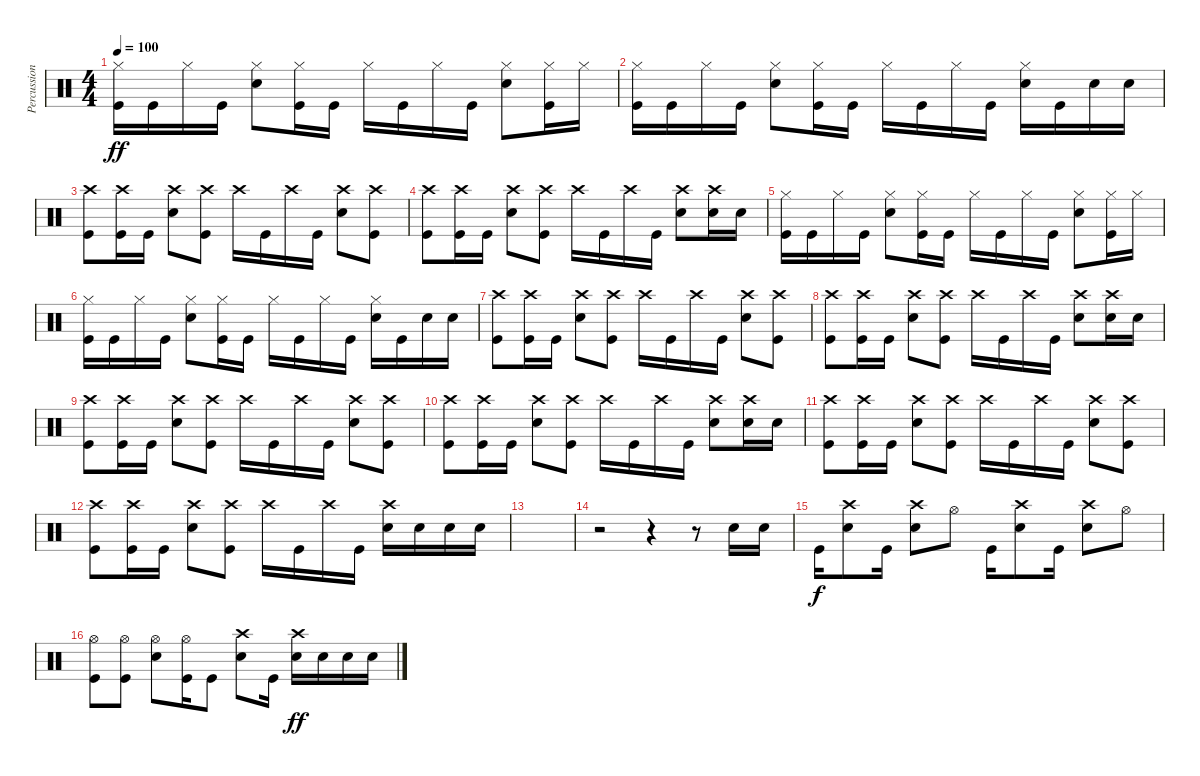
\track ("Percussion" "Percussion") {instrument percussion}
\staff {score}
\articulation defaults
\ts (4 4)
\tempo 100
\clef neutral
\ks c
("Hi-Hat (closed)" "Kick (hit)").16{dy ff} "Kick (hit)".16 "Hi-Hat (closed)".16 "Kick (hit)".16 ("Hi-Hat (closed)" "Electric Snare (hit)").8 ("Hi-Hat (closed)" "Kick (hit)").16 "Kick (hit)".16 "Hi-Hat (closed)".16 "Kick (hit)".16 "Hi-Hat (closed)".16 "Kick (hit)".16 ("Hi-Hat (closed)" "Electric Snare (hit)").8 ("Hi-Hat (closed)" "Kick (hit)").16 "Hi-Hat (closed)".16 |
("Hi-Hat (closed)" "Kick (hit)").16 "Kick (hit)".16 "Hi-Hat (closed)".16 "Kick (hit)".16 ("Hi-Hat (closed)" "Electric Snare (hit)").8 ("Hi-Hat (closed)" "Kick (hit)").16 "Kick (hit)".16 "Hi-Hat (closed)".16 "Kick (hit)".16 "Hi-Hat (closed)".16 "Kick (hit)".16 ("Hi-Hat (closed)" "Electric Snare (hit)").16 "Kick (hit)".16 "Electric Snare (hit)".16 "Electric Snare (hit)".16 |
("Crash high (hit)" "Kick (hit)").8 ("Crash high (hit)" "Kick (hit)").16 "Kick (hit)".16 ("Crash high (hit)" "Electric Snare (hit)").8 ("Crash high (hit)" "Kick (hit)").8 "Crash high (hit)".16 "Kick (hit)".16 "Crash high (hit)".16 "Kick (hit)".16 ("Crash high (hit)" "Electric Snare (hit)").8 ("Crash high (hit)" "Kick (hit)").8 |
("Crash high (hit)" "Kick (hit)").8 ("Crash high (hit)" "Kick (hit)").16 "Kick (hit)".16 ("Crash high (hit)" "Electric Snare (hit)").8 ("Crash high (hit)" "Kick (hit)").8 "Crash high (hit)".16 "Kick (hit)".16 "Crash high (hit)".16 "Kick (hit)".16 ("Crash high (hit)" "Electric Snare (hit)").8 ("Crash high (hit)" "Electric Snare (hit)").16 "Electric Snare (hit)".16 |
("Hi-Hat (closed)" "Kick (hit)").16 "Kick (hit)".16 "Hi-Hat (closed)".16 "Kick (hit)".16 ("Hi-Hat (closed)" "Electric Snare (hit)").8 ("Hi-Hat (closed)" "Kick (hit)").16 "Kick (hit)".16 "Hi-Hat (closed)".16 "Kick (hit)".16 "Hi-Hat (closed)".16 "Kick (hit)".16 ("Hi-Hat (closed)" "Electric Snare (hit)").8 ("Hi-Hat (closed)" "Kick (hit)").16 "Hi-Hat (closed)".16 |
("Hi-Hat (closed)" "Kick (hit)").16 "Kick (hit)".16 "Hi-Hat (closed)".16 "Kick (hit)".16 ("Hi-Hat (closed)" "Electric Snare (hit)").8 ("Hi-Hat (closed)" "Kick (hit)").16 "Kick (hit)".16 "Hi-Hat (closed)".16 "Kick (hit)".16 "Hi-Hat (closed)".16 "Kick (hit)".16 ("Hi-Hat (closed)" "Electric Snare (hit)").16 "Kick (hit)".16 "Electric Snare (hit)".16 "Electric Snare (hit)".16 |
("Crash high (hit)" "Kick (hit)").8 ("Crash high (hit)" "Kick (hit)").16 "Kick (hit)".16 ("Crash high (hit)" "Electric Snare (hit)").8 ("Crash high (hit)" "Kick (hit)").8 "Crash high (hit)".16 "Kick (hit)".16 "Crash high (hit)".16 "Kick (hit)".16 ("Crash high (hit)" "Electric Snare (hit)").8 ("Crash high (hit)" "Kick (hit)").8 |
("Crash high (hit)" "Kick (hit)").8 ("Crash high (hit)" "Kick (hit)").16 "Kick (hit)".16 ("Crash high (hit)" "Electric Snare (hit)").8 ("Crash high (hit)" "Kick (hit)").8 "Crash high (hit)".16 "Kick (hit)".16 "Crash high (hit)".16 "Kick (hit)".16 ("Crash high (hit)" "Electric Snare (hit)").8 ("Crash high (hit)" "Electric Snare (hit)").16 "Electric Snare (hit)".16 |
("Crash high (hit)" "Kick (hit)").8 ("Crash high (hit)" "Kick (hit)").16 "Kick (hit)".16 ("Crash high (hit)" "Electric Snare (hit)").8 ("Crash high (hit)" "Kick (hit)").8 "Crash high (hit)".16 "Kick (hit)".16 "Crash high (hit)".16 "Kick (hit)".16 ("Crash high (hit)" "Electric Snare (hit)").8 ("Crash high (hit)" "Kick (hit)").8 |
("Crash high (hit)" "Kick (hit)").8 ("Crash high (hit)" "Kick (hit)").16 "Kick (hit)".16 ("Crash high (hit)" "Electric Snare (hit)").8 ("Crash high (hit)" "Kick (hit)").8 "Crash high (hit)".16 "Kick (hit)".16 "Crash high (hit)".16 "Kick (hit)".16 ("Crash high (hit)" "Electric Snare (hit)").8 ("Crash high (hit)" "Electric Snare (hit)").16 "Electric Snare (hit)".16 |
("Crash high (hit)" "Kick (hit)").8 ("Crash high (hit)" "Kick (hit)").16 "Kick (hit)".16 ("Crash high (hit)" "Electric Snare (hit)").8 ("Crash high (hit)" "Kick (hit)").8 "Crash high (hit)".16 "Kick (hit)".16 "Crash high (hit)".16 "Kick (hit)".16 ("Crash high (hit)" "Electric Snare (hit)").8 ("Crash high (hit)" "Kick (hit)").8 |
("Crash high (hit)" "Kick (hit)").8 ("Crash high (hit)" "Kick (hit)").16 "Kick (hit)".16 ("Crash high (hit)" "Electric Snare (hit)").8 ("Crash high (hit)" "Kick (hit)").8 "Crash high (hit)".16 "Kick (hit)".16 "Crash high (hit)".16 "Kick (hit)".16 ("Crash high (hit)" "Electric Snare (hit)").16 "Electric Snare (hit)".16 "Electric Snare (hit)".16 "Electric Snare (hit)".16 |
|
r.2 r.4 r.8 "Electric Snare (hit)".16 "Electric Snare (hit)".16 |
"Kick (hit)".16{dy f} ("Crash high (hit)" "Electric Snare (hit)").8 "Kick (hit)".16 ("Crash high (hit)" "Electric Snare (hit)").8 "Hi-Hat (open)".8 "Kick (hit)".16 ("Crash high (hit)" "Electric Snare (hit)").8 "Kick (hit)".16 ("Crash high (hit)" "Electric Snare (hit)").8 "Hi-Hat (open)".8 |
("Hi-Hat (open)" "Kick (hit)").8 ("Hi-Hat (open)" "Kick (hit)").8 ("Hi-Hat (open)" "Electric Snare (hit)").8 ("Hi-Hat (open)" "Kick (hit)").16 "Kick (hit)".8 ("Crash high (hit)" "Electric Snare (hit)").8 "Kick (hit)".16 ("Crash high (hit)" "Electric Snare (hit)").16{dy ff} "Electric Snare (hit)".16 "Electric Snare (hit)".16 "Electric Snare (hit)".16
